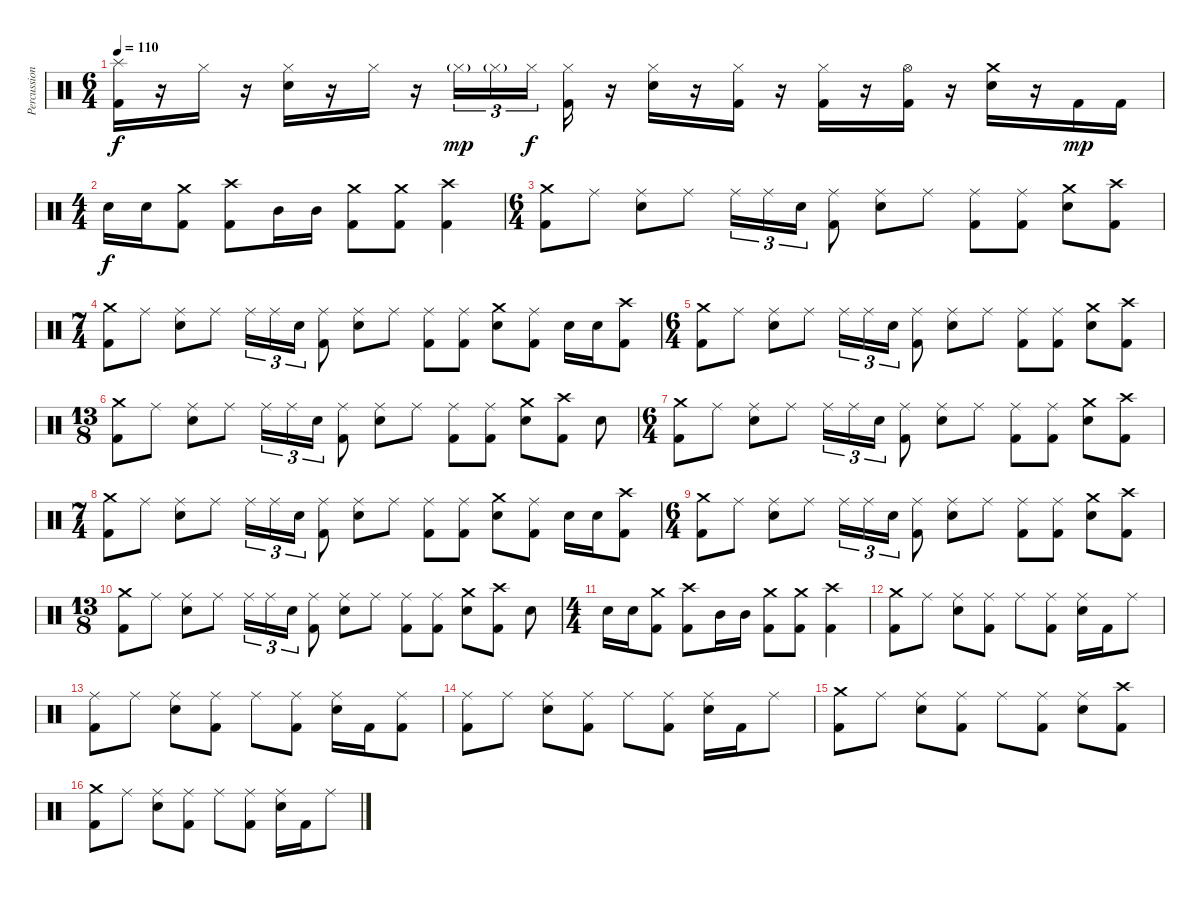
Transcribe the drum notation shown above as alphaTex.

\track ("Percussion" "Percussion") {instrument percussion}
\staff {score}
\articulation defaults
\ts (6 4)
\tempo 110
\clef neutral
\ks c
("Splash (hit)" "Kick (hit) 2").16{dy f} r.16 "Hi-Hat (closed)".16 r.16 ("Hi-Hat (closed)" "Electric Snare (hit)").16 r.16 "Hi-Hat (closed)".16 r.16 "Hi-Hat (closed)"{g}.16{tu (3 2) dy mp} "Hi-Hat (closed)"{g}.16{tu (3 2)} "Hi-Hat (closed)".16{tu (3 2) dy f beam splitsecondary} ("Hi-Hat (closed)" "Kick (hit) 2").16 r.16 ("Hi-Hat (closed)" "Electric Snare (hit)").16 r.16 ("Hi-Hat (closed)" "Kick (hit) 2").16 r.16 ("Hi-Hat (closed)" "Kick (hit) 2").16 r.16 ("Hi-Hat (open)" "Kick (hit) 2").16 r.16 ("Crash medium (hit)" "Electric Snare (hit)").16 r.16 "Kick (hit) 2".16{dy mp} "Kick (hit) 2".16 |
\ts (4 4)
"Electric Snare (hit)".16{dy f} "Electric Snare (hit)".16 ("Crash medium (hit)" "Kick (hit) 2").8 ("Crash high (hit)" "Kick (hit) 2").8 "Mid Tom (hit)".16 "Mid Tom (hit)".16 ("Crash medium (hit)" "Kick (hit) 2").8 ("Crash medium (hit)" "Kick (hit) 2").8 ("Crash high (hit)" "Kick (hit) 2").4 |
\ts (6 4)
("Crash medium (hit)" "Kick (hit) 2").8 "Ride (middle)".8 ("Ride (middle)" "Electric Snare (hit)").8 "Ride (middle)".8 "Ride (middle)".16{tu (3 2)} "Ride (middle)".16{tu (3 2)} "Electric Snare (hit)".16{tu (3 2)} ("Ride (middle)" "Kick (hit) 2").8 ("Ride (middle)" "Electric Snare (hit)").8 "Ride (middle)".8 ("Ride (middle)" "Kick (hit) 2").8 ("Ride (middle)" "Kick (hit) 2").8 ("Crash medium (hit)" "Electric Snare (hit)").8 ("Crash high (hit)" "Kick (hit) 2").8 |
\ts (7 4)
("Crash medium (hit)" "Kick (hit) 2").8 "Ride (middle)".8 ("Ride (middle)" "Electric Snare (hit)").8 "Ride (middle)".8 "Ride (middle)".16{tu (3 2)} "Ride (middle)".16{tu (3 2)} "Electric Snare (hit)".16{tu (3 2)} ("Ride (middle)" "Kick (hit) 2").8 ("Ride (middle)" "Electric Snare (hit)").8 "Ride (middle)".8 ("Ride (middle)" "Kick (hit) 2").8 ("Ride (middle)" "Kick (hit) 2").8 ("Crash medium (hit)" "Electric Snare (hit)").8 ("Ride (middle)" "Kick (hit) 2").8 "Electric Snare (hit)".16 "Electric Snare (hit)".16 ("Crash high (hit)" "Kick (hit) 2").8 |
\ts (6 4)
("Crash medium (hit)" "Kick (hit) 2").8 "Ride (middle)".8 ("Ride (middle)" "Electric Snare (hit)").8 "Ride (middle)".8 "Ride (middle)".16{tu (3 2)} "Ride (middle)".16{tu (3 2)} "Electric Snare (hit)".16{tu (3 2)} ("Ride (middle)" "Kick (hit) 2").8 ("Ride (middle)" "Electric Snare (hit)").8 "Ride (middle)".8 ("Ride (middle)" "Kick (hit) 2").8 ("Ride (middle)" "Kick (hit) 2").8 ("Crash medium (hit)" "Electric Snare (hit)").8 ("Crash high (hit)" "Kick (hit) 2").8 |
\ts (13 8)
("Crash medium (hit)" "Kick (hit) 2").8 "Ride (middle)".8 ("Ride (middle)" "Electric Snare (hit)").8 "Ride (middle)".8 "Ride (middle)".16{tu (3 2)} "Ride (middle)".16{tu (3 2)} "Electric Snare (hit)".16{tu (3 2)} ("Ride (middle)" "Kick (hit) 2").8 ("Ride (middle)" "Electric Snare (hit)").8 "Ride (middle)".8 ("Ride (middle)" "Kick (hit) 2").8 ("Ride (middle)" "Kick (hit) 2").8 ("Crash medium (hit)" "Electric Snare (hit)").8 ("Crash high (hit)" "Kick (hit) 2").8 "Electric Snare (hit)".8 |
\ts (6 4)
("Crash medium (hit)" "Kick (hit) 2").8 "Ride (middle)".8 ("Ride (middle)" "Electric Snare (hit)").8 "Ride (middle)".8 "Ride (middle)".16{tu (3 2)} "Ride (middle)".16{tu (3 2)} "Electric Snare (hit)".16{tu (3 2)} ("Ride (middle)" "Kick (hit) 2").8 ("Ride (middle)" "Electric Snare (hit)").8 "Ride (middle)".8 ("Ride (middle)" "Kick (hit) 2").8 ("Ride (middle)" "Kick (hit) 2").8 ("Crash medium (hit)" "Electric Snare (hit)").8 ("Crash high (hit)" "Kick (hit) 2").8 |
\ts (7 4)
("Crash medium (hit)" "Kick (hit) 2").8 "Ride (middle)".8 ("Ride (middle)" "Electric Snare (hit)").8 "Ride (middle)".8 "Ride (middle)".16{tu (3 2)} "Ride (middle)".16{tu (3 2)} "Electric Snare (hit)".16{tu (3 2)} ("Ride (middle)" "Kick (hit) 2").8 ("Ride (middle)" "Electric Snare (hit)").8 "Ride (middle)".8 ("Ride (middle)" "Kick (hit) 2").8 ("Ride (middle)" "Kick (hit) 2").8 ("Crash medium (hit)" "Electric Snare (hit)").8 ("Ride (middle)" "Kick (hit) 2").8 "Electric Snare (hit)".16 "Electric Snare (hit)".16 ("Crash high (hit)" "Kick (hit) 2").8 |
\ts (6 4)
("Crash medium (hit)" "Kick (hit) 2").8 "Ride (middle)".8 ("Ride (middle)" "Electric Snare (hit)").8 "Ride (middle)".8 "Ride (middle)".16{tu (3 2)} "Ride (middle)".16{tu (3 2)} "Electric Snare (hit)".16{tu (3 2)} ("Ride (middle)" "Kick (hit) 2").8 ("Ride (middle)" "Electric Snare (hit)").8 "Ride (middle)".8 ("Ride (middle)" "Kick (hit) 2").8 ("Ride (middle)" "Kick (hit) 2").8 ("Crash medium (hit)" "Electric Snare (hit)").8 ("Crash high (hit)" "Kick (hit) 2").8 |
\ts (13 8)
("Crash medium (hit)" "Kick (hit) 2").8 "Ride (middle)".8 ("Ride (middle)" "Electric Snare (hit)").8 "Ride (middle)".8 "Ride (middle)".16{tu (3 2)} "Ride (middle)".16{tu (3 2)} "Electric Snare (hit)".16{tu (3 2)} ("Ride (middle)" "Kick (hit) 2").8 ("Ride (middle)" "Electric Snare (hit)").8 "Ride (middle)".8 ("Ride (middle)" "Kick (hit) 2").8 ("Ride (middle)" "Kick (hit) 2").8 ("Crash medium (hit)" "Electric Snare (hit)").8 ("Crash high (hit)" "Kick (hit) 2").8 "Electric Snare (hit)".8 |
\ts (4 4)
"Electric Snare (hit)".16 "Electric Snare (hit)".16 ("Crash medium (hit)" "Kick (hit) 2").8 ("Crash high (hit)" "Kick (hit) 2").8 "Mid Tom (hit)".16 "Mid Tom (hit)".16 ("Crash medium (hit)" "Kick (hit) 2").8 ("Crash medium (hit)" "Kick (hit) 2").8 ("Crash high (hit)" "Kick (hit) 2").4 |
("Crash medium (hit)" "Kick (hit) 2").8 "Ride (middle)".8 ("Ride (middle)" "Electric Snare (hit)").8 ("Ride (middle)" "Kick (hit) 2").8 "Ride (middle)".8 ("Ride (middle)" "Kick (hit) 2").8 ("Ride (middle)" "Electric Snare (hit)").16 "Kick (hit) 2".16 "Ride (middle)".8 |
("Ride (middle)" "Kick (hit) 2").8 "Ride (middle)".8 ("Ride (middle)" "Electric Snare (hit)").8 ("Ride (middle)" "Kick (hit) 2").8 "Ride (middle)".8 ("Ride (middle)" "Kick (hit) 2").8 ("Ride (middle)" "Electric Snare (hit)").16 "Kick (hit) 2".16 ("Ride (middle)" "Kick (hit) 2").8 |
("Ride (middle)" "Kick (hit) 2").8 "Ride (middle)".8 ("Ride (middle)" "Electric Snare (hit)").8 ("Ride (middle)" "Kick (hit) 2").8 "Ride (middle)".8 ("Ride (middle)" "Kick (hit) 2").8 ("Ride (middle)" "Electric Snare (hit)").16 "Kick (hit) 2".16 "Ride (middle)".8 |
("Crash medium (hit)" "Kick (hit) 2").8 "Ride (middle)".8 ("Ride (middle)" "Electric Snare (hit)").8 ("Ride (middle)" "Kick (hit) 2").8 "Ride (middle)".8 ("Ride (middle)" "Kick (hit) 2").8 ("Ride (middle)" "Electric Snare (hit)").8 ("Crash high (hit)" "Kick (hit) 2").8 |
("Crash medium (hit)" "Kick (hit) 2").8 "Ride (middle)".8 ("Ride (middle)" "Electric Snare (hit)").8 ("Ride (middle)" "Kick (hit) 2").8 "Ride (middle)".8 ("Ride (middle)" "Kick (hit) 2").8 ("Ride (middle)" "Electric Snare (hit)").16 "Kick (hit) 2".16 "Ride (middle)".8
